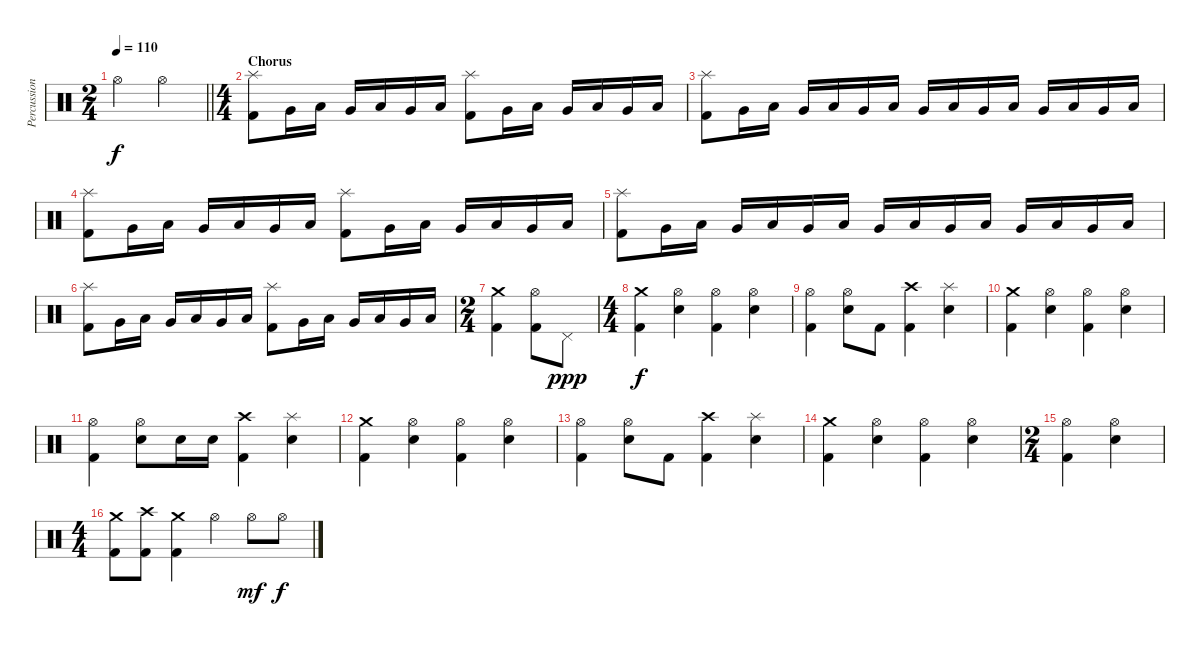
\track ("Percussion" "Percussion") {instrument percussion}
\staff {score}
\articulation defaults
\ts (2 4)
\tempo 110
\clef neutral
\barLineRight lightlight
\ks c "Hi-Hat (open)".4{dy f} "Hi-Hat (open)".4
|
\ts (4 4)
\section ("" "Chorus")
("Splash (hit)" "Kick (hit) 2").8 "Very Low Tom (hit)".16 "Low Tom (hit)".16 "Very Low Tom (hit)".16 "Low Floor Tom (hit)".16 "Very Low Tom (hit)".16 "Low Tom (hit)".16 ("Splash (hit)" "Kick (hit) 2").8 "Very Low Tom (hit)".16 "Low Tom (hit)".16 "Very Low Tom (hit)".16 "Low Floor Tom (hit)".16 "Very Low Tom (hit)".16 "Low Tom (hit)".16 |
("Splash (hit)" "Kick (hit) 2").8 "Very Low Tom (hit)".16 "Low Tom (hit)".16 "Very Low Tom (hit)".16 "Low Floor Tom (hit)".16 "Very Low Tom (hit)".16 "Low Tom (hit)".16 "Very Low Tom (hit)".16 "Low Floor Tom (hit)".16 "Very Low Tom (hit)".16 "Low Tom (hit)".16 "Very Low Tom (hit)".16 "Low Floor Tom (hit)".16 "Very Low Tom (hit)".16 "Low Tom (hit)".16 |
("Splash (hit)" "Kick (hit) 2").8 "Very Low Tom (hit)".16 "Low Tom (hit)".16 "Very Low Tom (hit)".16 "Low Floor Tom (hit)".16 "Very Low Tom (hit)".16 "Low Tom (hit)".16 ("Splash (hit)" "Kick (hit) 2").8 "Very Low Tom (hit)".16 "Low Tom (hit)".16 "Very Low Tom (hit)".16 "Low Floor Tom (hit)".16 "Very Low Tom (hit)".16 "Low Tom (hit)".16 |
("Splash (hit)" "Kick (hit) 2").8 "Very Low Tom (hit)".16 "Low Tom (hit)".16 "Very Low Tom (hit)".16 "Low Floor Tom (hit)".16 "Very Low Tom (hit)".16 "Low Tom (hit)".16 "Very Low Tom (hit)".16 "Low Floor Tom (hit)".16 "Very Low Tom (hit)".16 "Low Tom (hit)".16 "Very Low Tom (hit)".16 "Low Floor Tom (hit)".16 "Very Low Tom (hit)".16 "Low Tom (hit)".16 |
("Splash (hit)" "Kick (hit) 2").8 "Very Low Tom (hit)".16 "Low Tom (hit)".16 "Very Low Tom (hit)".16 "Low Floor Tom (hit)".16 "Very Low Tom (hit)".16 "Low Tom (hit)".16 ("Splash (hit)" "Kick (hit) 2").8 "Very Low Tom (hit)".16 "Low Tom (hit)".16 "Very Low Tom (hit)".16 "Low Floor Tom (hit)".16 "Very Low Tom (hit)".16 "Low Tom (hit)".16 |
\ts (2 4)
("Crash medium (hit)" "Kick (hit) 2").4 ("Hi-Hat (open)" "Kick (hit) 2").8 "Pedal Hi-Hat (hit)".8{dy ppp} |
\ts (4 4)
("Crash medium (hit)" "Kick (hit) 2").4{dy f} ("Hi-Hat (open)" "Electric Snare (hit)").4 ("Hi-Hat (open)" "Kick (hit) 2").4 ("Hi-Hat (open)" "Electric Snare (hit)").4 |
("Hi-Hat (open)" "Kick (hit) 2").4 ("Hi-Hat (open)" "Electric Snare (hit)").8 "Kick (hit) 2".8 ("Crash high (hit)" "Kick (hit) 2").4 ("Splash (hit)" "Electric Snare (hit)").4 |
("Crash medium (hit)" "Kick (hit) 2").4 ("Hi-Hat (open)" "Electric Snare (hit)").4 ("Hi-Hat (open)" "Kick (hit) 2").4 ("Hi-Hat (open)" "Electric Snare (hit)").4 |
("Hi-Hat (open)" "Kick (hit) 2").4 ("Hi-Hat (open)" "Electric Snare (hit)").8 "Electric Snare (hit)".16 "Electric Snare (hit)".16 ("Crash high (hit)" "Kick (hit) 2").4 ("Splash (hit)" "Electric Snare (hit)").4 |
("Crash medium (hit)" "Kick (hit) 2").4 ("Hi-Hat (open)" "Electric Snare (hit)").4 ("Hi-Hat (open)" "Kick (hit) 2").4 ("Hi-Hat (open)" "Electric Snare (hit)").4 |
("Hi-Hat (open)" "Kick (hit) 2").4 ("Hi-Hat (open)" "Electric Snare (hit)").8 "Kick (hit) 2".8 ("Crash high (hit)" "Kick (hit) 2").4 ("Splash (hit)" "Electric Snare (hit)").4 |
("Crash medium (hit)" "Kick (hit) 2").4 ("Hi-Hat (open)" "Electric Snare (hit)").4 ("Hi-Hat (open)" "Kick (hit) 2").4 ("Hi-Hat (open)" "Electric Snare (hit)").4 |
\ts (2 4)
("Hi-Hat (open)" "Kick (hit) 2").4 ("Hi-Hat (open)" "Electric Snare (hit)").4 |
\ts (4 4)
("Crash medium (hit)" "Kick (hit) 2").8 ("Crash high (hit)" "Kick (hit) 2").8 ("Crash medium (hit)" "Kick (hit) 2").4 "Hi-Hat (open)".4 "Hi-Hat (open)".8{dy mf} "Hi-Hat (open)".8{dy f}
